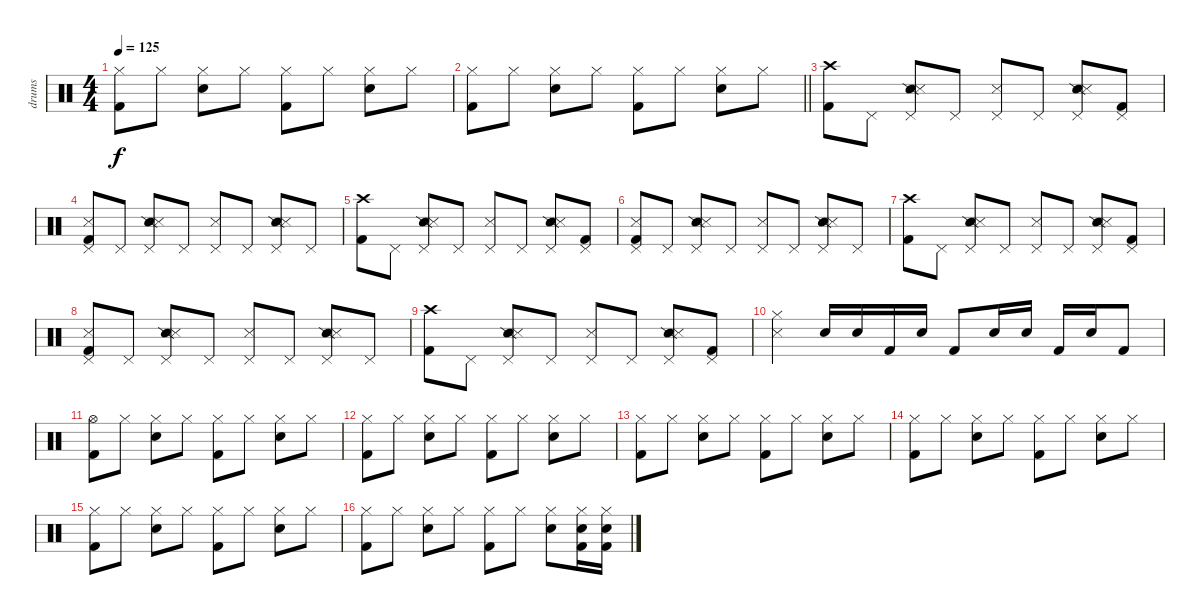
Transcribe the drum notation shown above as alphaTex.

\track ("drums" "drums") {instrument percussion}
\staff {score}
\articulation defaults
\ts (4 4)
\tempo 125
\clef neutral
\ks c
("Hi-Hat (closed)" "Kick (hit) 2").8{dy f} "Hi-Hat (closed)".8 ("Hi-Hat (closed)" "Snare (hit) 2").8 "Hi-Hat (closed)".8 ("Hi-Hat (closed)" "Kick (hit) 2").8 "Hi-Hat (closed)".8 ("Hi-Hat (closed)" "Snare (hit) 2").8 "Hi-Hat (closed)".8 |
\barLineRight lightlight
("Hi-Hat (closed)" "Kick (hit) 2").8 "Hi-Hat (closed)".8 ("Hi-Hat (closed)" "Snare (hit) 2").8 "Hi-Hat (closed)".8 ("Hi-Hat (closed)" "Kick (hit) 2").8 "Hi-Hat (closed)".8 ("Hi-Hat (closed)" "Snare (hit) 2").8 "Hi-Hat (closed)".8 |
("Crash high (hit)" "Kick (hit) 2").8 "Pedal Hi-Hat (hit)".8 ("Pedal Hi-Hat (hit)" "Snare (side stick) 2" "Snare (side stick) 3").8 "Pedal Hi-Hat (hit)".8 ("Pedal Hi-Hat (hit)" "Snare (side stick) 3").8 "Pedal Hi-Hat (hit)".8 ("Pedal Hi-Hat (hit)" "Snare (side stick) 2" "Snare (side stick) 3").8 ("Pedal Hi-Hat (hit)" "Kick (hit) 2").8 |
("Pedal Hi-Hat (hit)" "Snare (side stick) 3" "Kick (hit) 2").8 "Pedal Hi-Hat (hit)".8 ("Pedal Hi-Hat (hit)" "Snare (side stick) 2" "Snare (side stick) 3").8 "Pedal Hi-Hat (hit)".8 ("Pedal Hi-Hat (hit)" "Snare (side stick) 3").8 "Pedal Hi-Hat (hit)".8 ("Pedal Hi-Hat (hit)" "Snare (side stick) 2" "Snare (side stick) 3").8 "Pedal Hi-Hat (hit)".8 |
("Crash high (hit)" "Kick (hit) 2").8 "Pedal Hi-Hat (hit)".8 ("Pedal Hi-Hat (hit)" "Snare (side stick) 2" "Snare (side stick) 3").8 "Pedal Hi-Hat (hit)".8 ("Pedal Hi-Hat (hit)" "Snare (side stick) 3").8 "Pedal Hi-Hat (hit)".8 ("Pedal Hi-Hat (hit)" "Snare (side stick) 2" "Snare (side stick) 3").8 ("Pedal Hi-Hat (hit)" "Kick (hit) 2").8 |
("Pedal Hi-Hat (hit)" "Snare (side stick) 3" "Kick (hit) 2").8 "Pedal Hi-Hat (hit)".8 ("Pedal Hi-Hat (hit)" "Snare (side stick) 2" "Snare (side stick) 3").8 "Pedal Hi-Hat (hit)".8 ("Pedal Hi-Hat (hit)" "Snare (side stick) 3").8 "Pedal Hi-Hat (hit)".8 ("Pedal Hi-Hat (hit)" "Snare (side stick) 2" "Snare (side stick) 3").8 "Pedal Hi-Hat (hit)".8 |
("Crash high (hit)" "Kick (hit) 2").8 "Pedal Hi-Hat (hit)".8 ("Pedal Hi-Hat (hit)" "Snare (side stick) 2" "Snare (side stick) 3").8 "Pedal Hi-Hat (hit)".8 ("Pedal Hi-Hat (hit)" "Snare (side stick) 3").8 "Pedal Hi-Hat (hit)".8 ("Pedal Hi-Hat (hit)" "Snare (side stick) 2" "Snare (side stick) 3").8 ("Pedal Hi-Hat (hit)" "Kick (hit) 2").8 |
("Pedal Hi-Hat (hit)" "Snare (side stick) 3" "Kick (hit) 2").8 "Pedal Hi-Hat (hit)".8 ("Pedal Hi-Hat (hit)" "Snare (side stick) 2" "Snare (side stick) 3").8 "Pedal Hi-Hat (hit)".8 ("Pedal Hi-Hat (hit)" "Snare (side stick) 3").8 "Pedal Hi-Hat (hit)".8 ("Pedal Hi-Hat (hit)" "Snare (side stick) 2" "Snare (side stick) 3").8 "Pedal Hi-Hat (hit)".8 |
("Crash high (hit)" "Kick (hit) 2").8 "Pedal Hi-Hat (hit)".8 ("Pedal Hi-Hat (hit)" "Snare (side stick) 2" "Snare (side stick) 3").8 "Pedal Hi-Hat (hit)".8 ("Pedal Hi-Hat (hit)" "Snare (side stick) 3").8 "Pedal Hi-Hat (hit)".8 ("Pedal Hi-Hat (hit)" "Snare (side stick) 2" "Snare (side stick) 3").8 ("Pedal Hi-Hat (hit)" "Kick (hit) 2").8 |
("Hi-Hat (closed)" "Snare (side stick) 3").4 "Snare (hit) 2".16 "Snare (hit) 2".16 "Kick (hit) 2".16 "Snare (hit) 2".16 "Kick (hit) 2".8 "Snare (hit) 2".16 "Snare (hit) 2".16 "Kick (hit) 2".16 "Snare (hit) 2".16 "Kick (hit) 2".8 |
("Hi-Hat (open)" "Kick (hit) 2").8 "Hi-Hat (closed)".8 ("Hi-Hat (closed)" "Snare (hit) 2").8 "Hi-Hat (closed)".8 ("Hi-Hat (closed)" "Kick (hit) 2").8 "Hi-Hat (closed)".8 ("Hi-Hat (closed)" "Snare (hit) 2").8 "Hi-Hat (closed)".8 |
("Hi-Hat (closed)" "Kick (hit) 2").8 "Hi-Hat (closed)".8 ("Hi-Hat (closed)" "Snare (hit) 2").8 "Hi-Hat (closed)".8 ("Hi-Hat (closed)" "Kick (hit) 2").8 "Hi-Hat (closed)".8 ("Hi-Hat (closed)" "Snare (hit) 2").8 "Hi-Hat (closed)".8 |
("Hi-Hat (closed)" "Kick (hit) 2").8 "Hi-Hat (closed)".8 ("Hi-Hat (closed)" "Snare (hit) 2").8 "Hi-Hat (closed)".8 ("Hi-Hat (closed)" "Kick (hit) 2").8 "Hi-Hat (closed)".8 ("Hi-Hat (closed)" "Snare (hit) 2").8 "Hi-Hat (closed)".8 |
("Hi-Hat (closed)" "Kick (hit) 2").8 "Hi-Hat (closed)".8 ("Hi-Hat (closed)" "Snare (hit) 2").8 "Hi-Hat (closed)".8 ("Hi-Hat (closed)" "Kick (hit) 2").8 "Hi-Hat (closed)".8 ("Hi-Hat (closed)" "Snare (hit) 2").8 "Hi-Hat (closed)".8 |
("Hi-Hat (closed)" "Kick (hit) 2").8 "Hi-Hat (closed)".8 ("Hi-Hat (closed)" "Snare (hit) 2").8 "Hi-Hat (closed)".8 ("Hi-Hat (closed)" "Kick (hit) 2").8 "Hi-Hat (closed)".8 ("Hi-Hat (closed)" "Snare (hit) 2").8 "Hi-Hat (closed)".8 |
("Hi-Hat (closed)" "Kick (hit) 2").8 "Hi-Hat (closed)".8 ("Hi-Hat (closed)" "Snare (hit) 2").8 "Hi-Hat (closed)".8 ("Hi-Hat (closed)" "Kick (hit) 2").8 "Hi-Hat (closed)".8 ("Hi-Hat (closed)" "Snare (hit) 2").8 ("Hi-Hat (closed)" "Snare (hit) 2" "Kick (hit) 2").16 ("Hi-Hat (closed)" "Snare (hit) 2" "Kick (hit) 2").16
